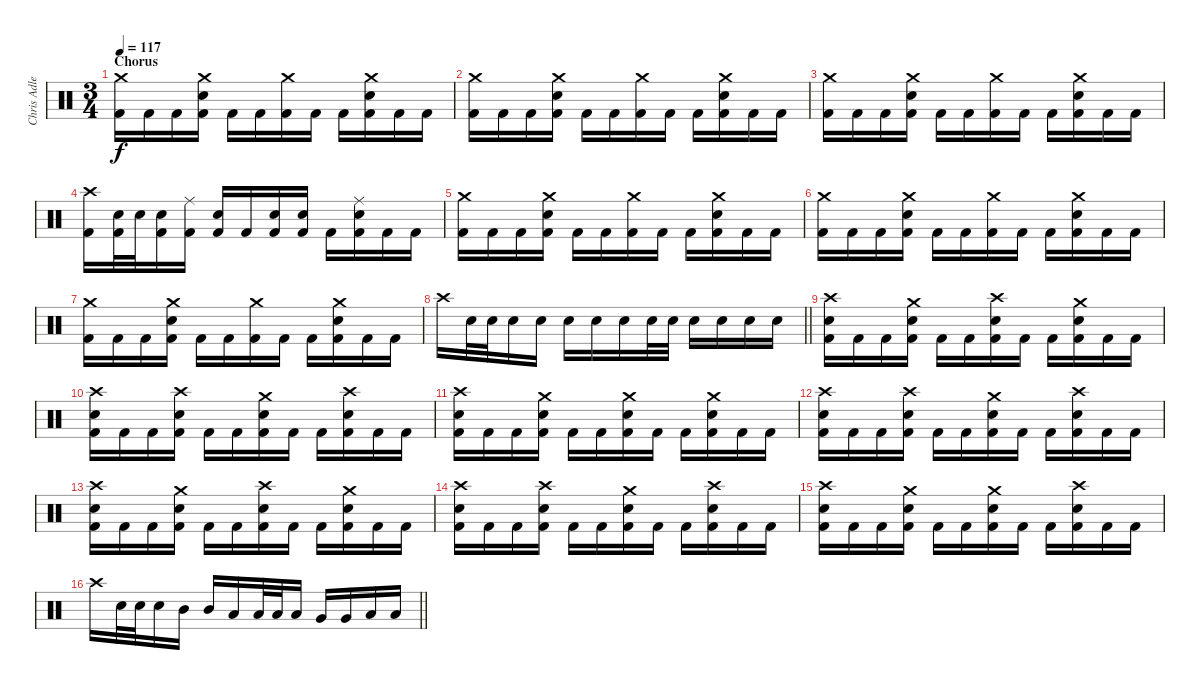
\track ("Chris Adler" "Chris Adle") {instrument percussion}
\staff {score}
\articulation defaults
\ts (3 4)
\section ("" "Chorus")
\tempo 117
\clef neutral
\ks c
("Crash medium (hit)" "Kick (hit) 2").16{dy f} "Kick (hit) 2".16 "Kick (hit) 2".16 ("Crash medium (hit)" "Electric Snare (hit)" "Kick (hit) 2").16 "Kick (hit) 2".16 "Kick (hit) 2".16 ("Crash medium (hit)" "Kick (hit) 2").16 "Kick (hit) 2".16 "Kick (hit) 2".16 ("Crash medium (hit)" "Electric Snare (hit)" "Kick (hit) 2").16 "Kick (hit) 2".16 "Kick (hit) 2".16 |
("Crash medium (hit)" "Kick (hit) 2").16 "Kick (hit) 2".16 "Kick (hit) 2".16 ("Crash medium (hit)" "Electric Snare (hit)" "Kick (hit) 2").16 "Kick (hit) 2".16 "Kick (hit) 2".16 ("Crash medium (hit)" "Kick (hit) 2").16 "Kick (hit) 2".16 "Kick (hit) 2".16 ("Crash medium (hit)" "Electric Snare (hit)" "Kick (hit) 2").16 "Kick (hit) 2".16 "Kick (hit) 2".16 |
("Crash medium (hit)" "Kick (hit) 2").16 "Kick (hit) 2".16 "Kick (hit) 2".16 ("Crash medium (hit)" "Electric Snare (hit)" "Kick (hit) 2").16 "Kick (hit) 2".16 "Kick (hit) 2".16 ("Crash medium (hit)" "Kick (hit) 2").16 "Kick (hit) 2".16 "Kick (hit) 2".16 ("Crash medium (hit)" "Electric Snare (hit)" "Kick (hit) 2").16 "Kick (hit) 2".16 "Kick (hit) 2".16 |
("Crash high (hit)" "Kick (hit) 2").16 ("Electric Snare (hit)" "Kick (hit) 2").32 "Electric Snare (hit)".32 ("Electric Snare (hit)" "Kick (hit) 2").16 ("Ride (middle)" "Kick (hit) 2").16 ("Electric Snare (hit)" "Kick (hit) 2").16 "Kick (hit) 2".16 ("Electric Snare (hit)" "Kick (hit) 2").16 ("Electric Snare (hit)" "Kick (hit) 2").16 "Kick (hit) 2".16 ("Ride (middle)" "Electric Snare (hit)" "Kick (hit) 2").16 "Kick (hit) 2".16 "Kick (hit) 2".16 |
("Crash medium (hit)" "Kick (hit) 2").16 "Kick (hit) 2".16 "Kick (hit) 2".16 ("Crash medium (hit)" "Electric Snare (hit)" "Kick (hit) 2").16 "Kick (hit) 2".16 "Kick (hit) 2".16 ("Crash medium (hit)" "Kick (hit) 2").16 "Kick (hit) 2".16 "Kick (hit) 2".16 ("Crash medium (hit)" "Electric Snare (hit)" "Kick (hit) 2").16 "Kick (hit) 2".16 "Kick (hit) 2".16 |
("Crash medium (hit)" "Kick (hit) 2").16 "Kick (hit) 2".16 "Kick (hit) 2".16 ("Crash medium (hit)" "Electric Snare (hit)" "Kick (hit) 2").16 "Kick (hit) 2".16 "Kick (hit) 2".16 ("Crash medium (hit)" "Kick (hit) 2").16 "Kick (hit) 2".16 "Kick (hit) 2".16 ("Crash medium (hit)" "Electric Snare (hit)" "Kick (hit) 2").16 "Kick (hit) 2".16 "Kick (hit) 2".16 |
("Crash medium (hit)" "Kick (hit) 2").16 "Kick (hit) 2".16 "Kick (hit) 2".16 ("Crash medium (hit)" "Electric Snare (hit)" "Kick (hit) 2").16 "Kick (hit) 2".16 "Kick (hit) 2".16 ("Crash medium (hit)" "Kick (hit) 2").16 "Kick (hit) 2".16 "Kick (hit) 2".16 ("Crash medium (hit)" "Electric Snare (hit)" "Kick (hit) 2").16 "Kick (hit) 2".16 "Kick (hit) 2".16 |
\barLineRight lightlight "Crash high (hit)".16 "Electric Snare (hit)".32 "Electric Snare (hit)".32 "Electric Snare (hit)".16 "Electric Snare (hit)".16 "Electric Snare (hit)".16 "Electric Snare (hit)".16 "Electric Snare (hit)".16 "Electric Snare (hit)".32 "Electric Snare (hit)".32 "Electric Snare (hit)".16 "Electric Snare (hit)".16 "Electric Snare (hit)".16 "Electric Snare (hit)".16
|
("Crash high (hit)" "Electric Snare (hit)" "Kick (hit) 2").16 "Kick (hit) 2".16 "Kick (hit) 2".16 ("Crash medium (hit)" "Electric Snare (hit)" "Kick (hit) 2").16 "Kick (hit) 2".16 "Kick (hit) 2".16 ("Crash high (hit)" "Electric Snare (hit)" "Kick (hit) 2").16 "Kick (hit) 2".16 "Kick (hit) 2".16 ("Crash medium (hit)" "Electric Snare (hit)" "Kick (hit) 2").16 "Kick (hit) 2".16 "Kick (hit) 2".16 |
("Crash high (hit)" "Electric Snare (hit)" "Kick (hit) 2").16 "Kick (hit) 2".16 "Kick (hit) 2".16 ("Crash high (hit)" "Electric Snare (hit)" "Kick (hit) 2").16 "Kick (hit) 2".16 "Kick (hit) 2".16 ("Crash medium (hit)" "Electric Snare (hit)" "Kick (hit) 2").16 "Kick (hit) 2".16 "Kick (hit) 2".16 ("Crash high (hit)" "Electric Snare (hit)" "Kick (hit) 2").16 "Kick (hit) 2".16 "Kick (hit) 2".16 |
("Crash high (hit)" "Electric Snare (hit)" "Kick (hit) 2").16 "Kick (hit) 2".16 "Kick (hit) 2".16 ("Crash medium (hit)" "Electric Snare (hit)" "Kick (hit) 2").16 "Kick (hit) 2".16 "Kick (hit) 2".16 ("Crash medium (hit)" "Electric Snare (hit)" "Kick (hit) 2").16 "Kick (hit) 2".16 "Kick (hit) 2".16 ("Crash medium (hit)" "Electric Snare (hit)" "Kick (hit) 2").16 "Kick (hit) 2".16 "Kick (hit) 2".16 |
("Crash high (hit)" "Electric Snare (hit)" "Kick (hit) 2").16 "Kick (hit) 2".16 "Kick (hit) 2".16 ("Crash high (hit)" "Electric Snare (hit)" "Kick (hit) 2").16 "Kick (hit) 2".16 "Kick (hit) 2".16 ("Crash medium (hit)" "Electric Snare (hit)" "Kick (hit) 2").16 "Kick (hit) 2".16 "Kick (hit) 2".16 ("Crash high (hit)" "Electric Snare (hit)" "Kick (hit) 2").16 "Kick (hit) 2".16 "Kick (hit) 2".16 |
("Crash high (hit)" "Electric Snare (hit)" "Kick (hit) 2").16 "Kick (hit) 2".16 "Kick (hit) 2".16 ("Crash medium (hit)" "Electric Snare (hit)" "Kick (hit) 2").16 "Kick (hit) 2".16 "Kick (hit) 2".16 ("Crash high (hit)" "Electric Snare (hit)" "Kick (hit) 2").16 "Kick (hit) 2".16 "Kick (hit) 2".16 ("Crash medium (hit)" "Electric Snare (hit)" "Kick (hit) 2").16 "Kick (hit) 2".16 "Kick (hit) 2".16 |
("Crash high (hit)" "Electric Snare (hit)" "Kick (hit) 2").16 "Kick (hit) 2".16 "Kick (hit) 2".16 ("Crash high (hit)" "Electric Snare (hit)" "Kick (hit) 2").16 "Kick (hit) 2".16 "Kick (hit) 2".16 ("Crash medium (hit)" "Electric Snare (hit)" "Kick (hit) 2").16 "Kick (hit) 2".16 "Kick (hit) 2".16 ("Crash high (hit)" "Electric Snare (hit)" "Kick (hit) 2").16 "Kick (hit) 2".16 "Kick (hit) 2".16 |
("Crash high (hit)" "Electric Snare (hit)" "Kick (hit) 2").16 "Kick (hit) 2".16 "Kick (hit) 2".16 ("Crash medium (hit)" "Electric Snare (hit)" "Kick (hit) 2").16 "Kick (hit) 2".16 "Kick (hit) 2".16 ("Crash medium (hit)" "Electric Snare (hit)" "Kick (hit) 2").16 "Kick (hit) 2".16 "Kick (hit) 2".16 ("Crash high (hit)" "Electric Snare (hit)" "Kick (hit) 2").16 "Kick (hit) 2".16 "Kick (hit) 2".16 |
\barLineRight lightlight "Crash high (hit)".16 "Electric Snare (hit)".32 "Electric Snare (hit)".32 "Electric Snare (hit)".16 "Mid Tom (hit)".16 "Mid Tom (hit)".16 "Low Tom (hit)".16 "Low Tom (hit)".32 "Low Tom (hit)".32 "Low Tom (hit)".16 "Very Low Tom (hit)".16 "Very Low Tom (hit)".16 "Low Floor Tom (hit)".16 "Low Floor Tom (hit)".16
